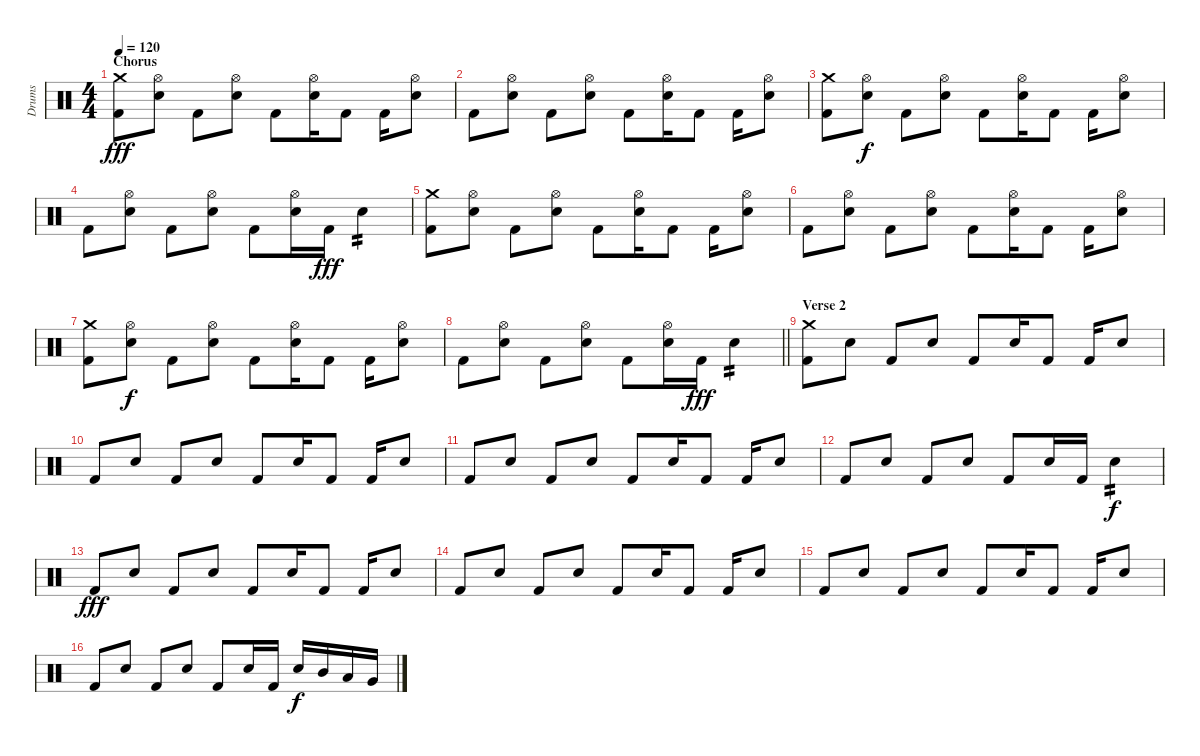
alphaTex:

\track ("Drums" "Drums") {instrument percussion}
\staff {score}
\articulation defaults
\ts (4 4)
\section ("" "Chorus")
\tempo 120
\clef neutral
\ks c
("Crash medium (hit)" "Kick (hit) 2").8{dy fff} ("Hi-Hat (open)" "Snare (hit) 2").8 "Kick (hit) 2".8 ("Hi-Hat (open)" "Snare (hit) 2").8 "Kick (hit) 2".8 ("Hi-Hat (open)" "Snare (hit) 2").16 "Kick (hit) 2".8 "Kick (hit) 2".16 ("Hi-Hat (open)" "Snare (hit) 2").8 |
"Kick (hit) 2".8 ("Hi-Hat (open)" "Snare (hit) 2").8 "Kick (hit) 2".8 ("Hi-Hat (open)" "Snare (hit) 2").8 "Kick (hit) 2".8 ("Hi-Hat (open)" "Snare (hit) 2").16 "Kick (hit) 2".8 "Kick (hit) 2".16 ("Hi-Hat (open)" "Snare (hit) 2").8 |
("Crash medium (hit)" "Kick (hit) 2").8 ("Hi-Hat (open)" "Snare (hit) 2").8{dy f} "Kick (hit) 2".8 ("Hi-Hat (open)" "Snare (hit) 2").8 "Kick (hit) 2".8 ("Hi-Hat (open)" "Snare (hit) 2").16 "Kick (hit) 2".8 "Kick (hit) 2".16 ("Hi-Hat (open)" "Snare (hit) 2").8 |
"Kick (hit) 2".8 ("Hi-Hat (open)" "Snare (hit) 2").8 "Kick (hit) 2".8 ("Hi-Hat (open)" "Snare (hit) 2").8 "Kick (hit) 2".8 ("Hi-Hat (open)" "Snare (hit) 2").16 "Kick (hit) 2".16{dy fff} "Snare (hit) 2".4{tp 2} |
("Crash medium (hit)" "Kick (hit) 2").8 ("Hi-Hat (open)" "Snare (hit) 2").8 "Kick (hit) 2".8 ("Hi-Hat (open)" "Snare (hit) 2").8 "Kick (hit) 2".8 ("Hi-Hat (open)" "Snare (hit) 2").16 "Kick (hit) 2".8 "Kick (hit) 2".16 ("Hi-Hat (open)" "Snare (hit) 2").8 |
"Kick (hit) 2".8 ("Hi-Hat (open)" "Snare (hit) 2").8 "Kick (hit) 2".8 ("Hi-Hat (open)" "Snare (hit) 2").8 "Kick (hit) 2".8 ("Hi-Hat (open)" "Snare (hit) 2").16 "Kick (hit) 2".8 "Kick (hit) 2".16 ("Hi-Hat (open)" "Snare (hit) 2").8 |
("Crash medium (hit)" "Kick (hit) 2").8 ("Hi-Hat (open)" "Snare (hit) 2").8{dy f} "Kick (hit) 2".8 ("Hi-Hat (open)" "Snare (hit) 2").8 "Kick (hit) 2".8 ("Hi-Hat (open)" "Snare (hit) 2").16 "Kick (hit) 2".8 "Kick (hit) 2".16 ("Hi-Hat (open)" "Snare (hit) 2").8 |
\barLineRight lightlight "Kick (hit) 2".8
("Hi-Hat (open)" "Snare (hit) 2").8 "Kick (hit) 2".8 ("Hi-Hat (open)" "Snare (hit) 2").8 "Kick (hit) 2".8 ("Hi-Hat (open)" "Snare (hit) 2").16 "Kick (hit) 2".16{dy fff} "Snare (hit) 2".4{tp 2} |
\section ("" "Verse 2")
("Crash medium (hit)" "Kick (hit) 2").8 "Snare (hit) 2".8 "Kick (hit) 2".8 "Snare (hit) 2".8 "Kick (hit) 2".8 "Snare (hit) 2".16 "Kick (hit) 2".8 "Kick (hit) 2".16 "Snare (hit) 2".8 |
"Kick (hit) 2".8 "Snare (hit) 2".8 "Kick (hit) 2".8 "Snare (hit) 2".8 "Kick (hit) 2".8 "Snare (hit) 2".16 "Kick (hit) 2".8 "Kick (hit) 2".16 "Snare (hit) 2".8 |
"Kick (hit) 2".8 "Snare (hit) 2".8 "Kick (hit) 2".8 "Snare (hit) 2".8 "Kick (hit) 2".8 "Snare (hit) 2".16 "Kick (hit) 2".8 "Kick (hit) 2".16 "Snare (hit) 2".8 |
"Kick (hit) 2".8 "Snare (hit) 2".8 "Kick (hit) 2".8 "Snare (hit) 2".8 "Kick (hit) 2".8 "Snare (hit) 2".16 "Kick (hit) 2".16 "Snare (hit) 2".4{tp 2 dy f} |
"Kick (hit) 2".8{dy fff} "Snare (hit) 2".8 "Kick (hit) 2".8 "Snare (hit) 2".8 "Kick (hit) 2".8 "Snare (hit) 2".16 "Kick (hit) 2".8 "Kick (hit) 2".16 "Snare (hit) 2".8 |
"Kick (hit) 2".8 "Snare (hit) 2".8 "Kick (hit) 2".8 "Snare (hit) 2".8 "Kick (hit) 2".8 "Snare (hit) 2".16 "Kick (hit) 2".8 "Kick (hit) 2".16 "Snare (hit) 2".8 |
"Kick (hit) 2".8 "Snare (hit) 2".8 "Kick (hit) 2".8 "Snare (hit) 2".8 "Kick (hit) 2".8 "Snare (hit) 2".16 "Kick (hit) 2".8 "Kick (hit) 2".16 "Snare (hit) 2".8 |
"Kick (hit) 2".8 "Snare (hit) 2".8 "Kick (hit) 2".8 "Snare (hit) 2".8 "Kick (hit) 2".8 "Snare (hit) 2".16 "Kick (hit) 2".16 "Snare (hit) 2".16{dy f} "Mid Tom (hit)".16 "Low Tom (hit)".16 "Very Low Tom (hit)".16
